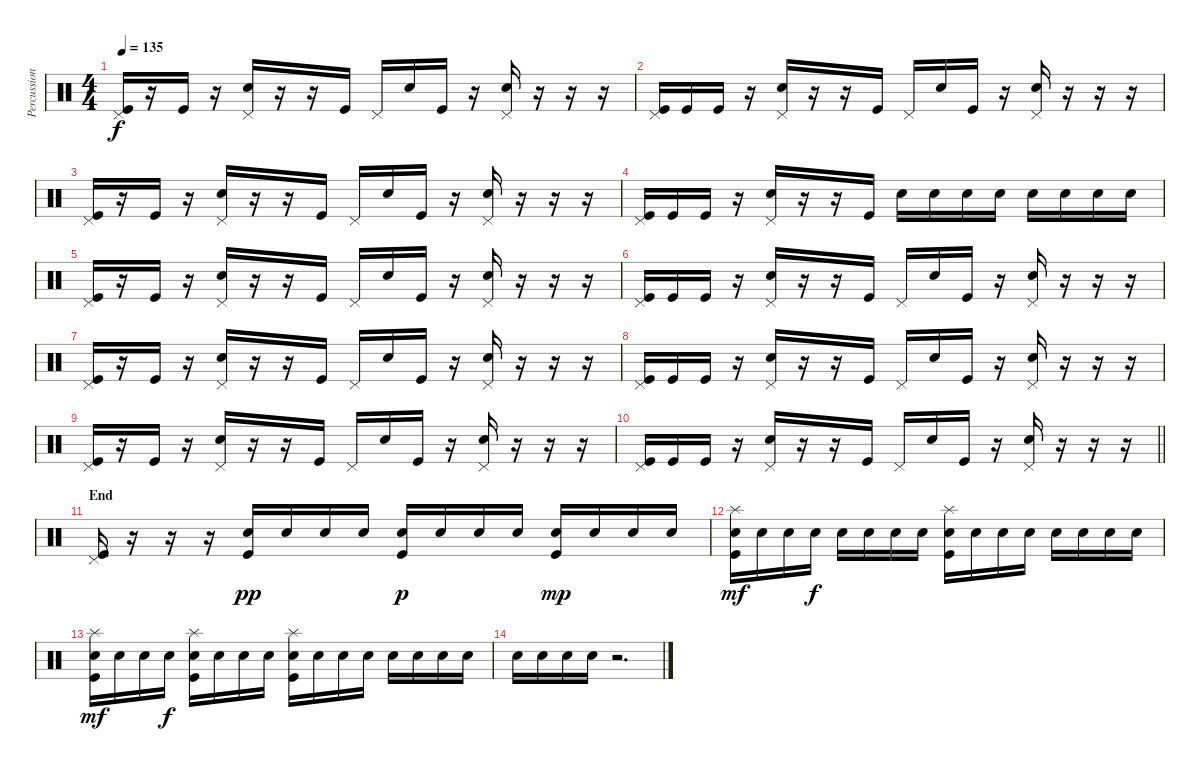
\track ("Percussion" "Percussion") {instrument percussion}
\staff {score}
\articulation defaults
\ts (4 4)
\tempo 135
\clef neutral
\ks c
("Pedal Hi-Hat (hit)" "Kick (hit)").16{dy f} r.16 "Kick (hit)".16 r.16 ("Pedal Hi-Hat (hit)" "Snare (hit) 2").16 r.16 r.16 "Kick (hit)".16 "Pedal Hi-Hat (hit)".16 "Snare (hit) 2".16 "Kick (hit)".16 r.16 ("Pedal Hi-Hat (hit)" "Snare (hit) 2").16 r.16 r.16 r.16 |
("Pedal Hi-Hat (hit)" "Kick (hit)").16 "Kick (hit)".16 "Kick (hit)".16 r.16 ("Pedal Hi-Hat (hit)" "Snare (hit) 2").16 r.16 r.16 "Kick (hit)".16 "Pedal Hi-Hat (hit)".16 "Snare (hit) 2".16 "Kick (hit)".16 r.16 ("Pedal Hi-Hat (hit)" "Snare (hit) 2").16 r.16 r.16 r.16 |
("Pedal Hi-Hat (hit)" "Kick (hit)").16 r.16 "Kick (hit)".16 r.16 ("Pedal Hi-Hat (hit)" "Snare (hit) 2").16 r.16 r.16 "Kick (hit)".16 "Pedal Hi-Hat (hit)".16 "Snare (hit) 2".16 "Kick (hit)".16 r.16 ("Pedal Hi-Hat (hit)" "Snare (hit) 2").16 r.16 r.16 r.16 |
("Pedal Hi-Hat (hit)" "Kick (hit)").16 "Kick (hit)".16 "Kick (hit)".16 r.16 ("Pedal Hi-Hat (hit)" "Snare (hit) 2").16 r.16 r.16 "Kick (hit)".16 "Snare (hit) 2".16 "Snare (hit) 2".16 "Snare (hit) 2".16 "Snare (hit) 2".16 "Snare (hit) 2".16 "Snare (hit) 2".16 "Snare (hit) 2".16 "Snare (hit) 2".16 |
("Pedal Hi-Hat (hit)" "Kick (hit)").16 r.16 "Kick (hit)".16 r.16 ("Pedal Hi-Hat (hit)" "Snare (hit) 2").16 r.16 r.16 "Kick (hit)".16 "Pedal Hi-Hat (hit)".16 "Snare (hit) 2".16 "Kick (hit)".16 r.16 ("Pedal Hi-Hat (hit)" "Snare (hit) 2").16 r.16 r.16 r.16 |
("Pedal Hi-Hat (hit)" "Kick (hit)").16 "Kick (hit)".16 "Kick (hit)".16 r.16 ("Pedal Hi-Hat (hit)" "Snare (hit) 2").16 r.16 r.16 "Kick (hit)".16 "Pedal Hi-Hat (hit)".16 "Snare (hit) 2".16 "Kick (hit)".16 r.16 ("Pedal Hi-Hat (hit)" "Snare (hit) 2").16 r.16 r.16 r.16 |
("Pedal Hi-Hat (hit)" "Kick (hit)").16 r.16 "Kick (hit)".16 r.16 ("Pedal Hi-Hat (hit)" "Snare (hit) 2").16 r.16 r.16 "Kick (hit)".16 "Pedal Hi-Hat (hit)".16 "Snare (hit) 2".16 "Kick (hit)".16 r.16 ("Pedal Hi-Hat (hit)" "Snare (hit) 2").16 r.16 r.16 r.16 |
("Pedal Hi-Hat (hit)" "Kick (hit)").16 "Kick (hit)".16 "Kick (hit)".16 r.16 ("Pedal Hi-Hat (hit)" "Snare (hit) 2").16 r.16 r.16 "Kick (hit)".16 "Pedal Hi-Hat (hit)".16 "Snare (hit) 2".16 "Kick (hit)".16 r.16 ("Pedal Hi-Hat (hit)" "Snare (hit) 2").16 r.16 r.16 r.16 |
("Pedal Hi-Hat (hit)" "Kick (hit)").16 r.16 "Kick (hit)".16 r.16 ("Pedal Hi-Hat (hit)" "Snare (hit) 2").16 r.16 r.16 "Kick (hit)".16 "Pedal Hi-Hat (hit)".16 "Snare (hit) 2".16 "Kick (hit)".16 r.16 ("Pedal Hi-Hat (hit)" "Snare (hit) 2").16 r.16 r.16 r.16 |
\barLineRight lightlight
("Pedal Hi-Hat (hit)" "Kick (hit)").16 "Kick (hit)".16 "Kick (hit)".16 r.16 ("Pedal Hi-Hat (hit)" "Snare (hit) 2").16 r.16 r.16 "Kick (hit)".16 "Pedal Hi-Hat (hit)".16 "Snare (hit) 2".16 "Kick (hit)".16 r.16 ("Pedal Hi-Hat (hit)" "Snare (hit) 2").16 r.16 r.16 r.16 |
\section ("" "End")
("Pedal Hi-Hat (hit)" "Kick (hit)").16 r.16 r.16 r.16 ("Snare (hit) 2" "Kick (hit)").16{dy pp} "Snare (hit) 2".16 "Snare (hit) 2".16 "Snare (hit) 2".16 ("Snare (hit) 2" "Kick (hit)").16{dy p} "Snare (hit) 2".16 "Snare (hit) 2".16 "Snare (hit) 2".16 ("Snare (hit) 2" "Kick (hit)").16{dy mp} "Snare (hit) 2".16 "Snare (hit) 2".16 "Snare (hit) 2".16 |
("Splash (hit)" "Snare (hit) 2" "Kick (hit)").16{dy mf} "Snare (hit) 2".16 "Snare (hit) 2".16 "Snare (hit) 2".16{dy f} "Snare (hit) 2".16 "Snare (hit) 2".16 "Snare (hit) 2".16 "Snare (hit) 2".16 ("Splash (hit)" "Snare (hit) 2" "Kick (hit)").16 "Snare (hit) 2".16 "Snare (hit) 2".16 "Snare (hit) 2".16 "Snare (hit) 2".16 "Snare (hit) 2".16 "Snare (hit) 2".16 "Snare (hit) 2".16 |
("Splash (hit)" "Snare (hit) 2" "Kick (hit)").16{dy mf} "Snare (hit) 2".16 "Snare (hit) 2".16 "Snare (hit) 2".16{dy f} ("Splash (hit)" "Snare (hit) 2" "Kick (hit)").16 "Snare (hit) 2".16 "Snare (hit) 2".16 "Snare (hit) 2".16 ("Splash (hit)" "Snare (hit) 2" "Kick (hit)").16 "Snare (hit) 2".16 "Snare (hit) 2".16 "Snare (hit) 2".16 "Snare (hit) 2".16 "Snare (hit) 2".16 "Snare (hit) 2".16 "Snare (hit) 2".16 |
"Snare (hit) 2".16 "Snare (hit) 2".16 "Snare (hit) 2".16 "Snare (hit) 2".16 r.2{d}
